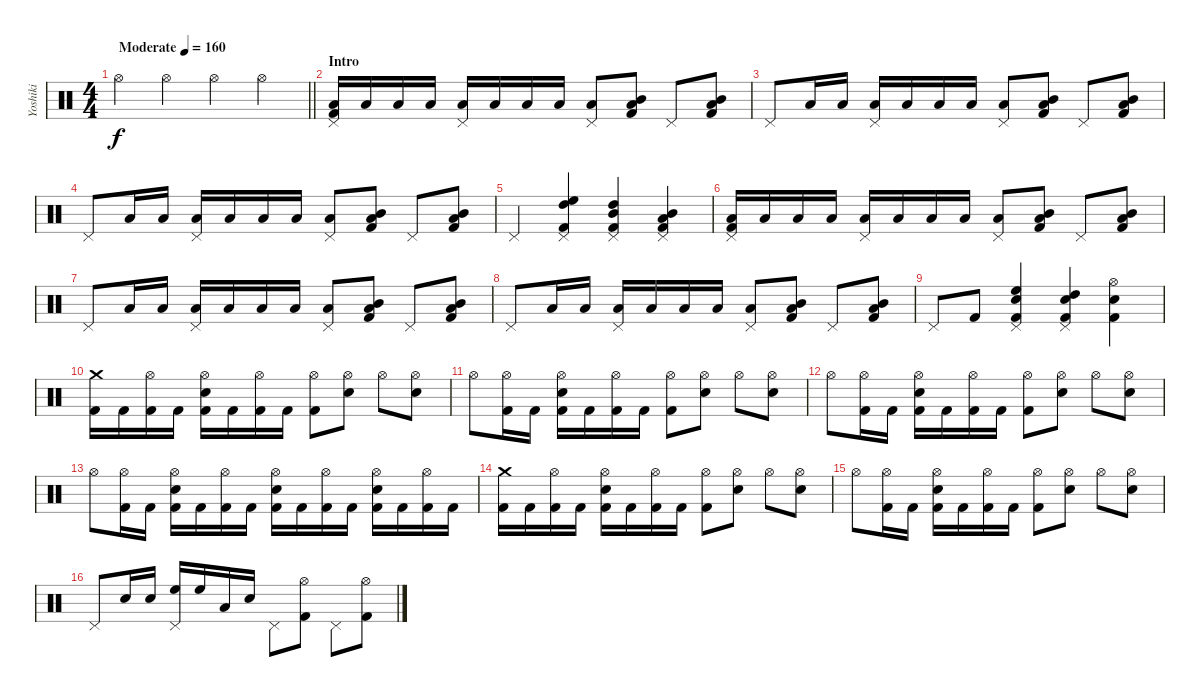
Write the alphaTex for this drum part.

\track ("Yoshiki" "Yoshiki") {instrument percussion}
\staff {score}
\articulation defaults
\ts (4 4)
\tempo (160 "Moderate")
\clef neutral
\barLineRight lightlight
\ks c "Hi-Hat (open)".4{dy f} "Hi-Hat (open)".4 "Hi-Hat (open)".4 "Hi-Hat (open)".4
|
\section ("" "Intro")
("Low Tom (hit)" "Pedal Hi-Hat (hit)" "Kick (hit) 2").16 "Low Tom (hit)".16 "Low Tom (hit)".16 "Low Tom (hit)".16 ("Low Tom (hit)" "Pedal Hi-Hat (hit)").16 "Low Tom (hit)".16 "Low Tom (hit)".16 "Low Tom (hit)".16 ("Low Tom (hit)" "Pedal Hi-Hat (hit)").8 ("Mid Tom (hit)" "Low Tom (hit)" "Kick (hit) 2").8 "Pedal Hi-Hat (hit)".8 ("Mid Tom (hit)" "Low Tom (hit)" "Kick (hit) 2").8 |
"Pedal Hi-Hat (hit)".8 "Low Tom (hit)".16 "Low Tom (hit)".16 ("Low Tom (hit)" "Pedal Hi-Hat (hit)").16 "Low Tom (hit)".16 "Low Tom (hit)".16 "Low Tom (hit)".16 ("Low Tom (hit)" "Pedal Hi-Hat (hit)").8 ("Mid Tom (hit)" "Low Tom (hit)" "Kick (hit) 2").8 "Pedal Hi-Hat (hit)".8 ("Mid Tom (hit)" "Low Tom (hit)" "Kick (hit) 2").8 |
"Pedal Hi-Hat (hit)".8 "Low Tom (hit)".16 "Low Tom (hit)".16 ("Low Tom (hit)" "Pedal Hi-Hat (hit)").16 "Low Tom (hit)".16 "Low Tom (hit)".16 "Low Tom (hit)".16 ("Low Tom (hit)" "Pedal Hi-Hat (hit)").8 ("Mid Tom (hit)" "Low Tom (hit)" "Kick (hit) 2").8 "Pedal Hi-Hat (hit)".8 ("Mid Tom (hit)" "Low Tom (hit)" "Kick (hit) 2").8 |
"Pedal Hi-Hat (hit)".4 ("High Floor Tom (hit)" "High Tom (hit)" "Pedal Hi-Hat (hit)" "Kick (hit) 2").4 ("High Tom (hit)" "Mid Tom (hit)" "Pedal Hi-Hat (hit)" "Kick (hit) 2").4 ("Mid Tom (hit)" "Low Tom (hit)" "Pedal Hi-Hat (hit)" "Kick (hit) 2").4 |
("Low Tom (hit)" "Pedal Hi-Hat (hit)" "Kick (hit) 2").16 "Low Tom (hit)".16 "Low Tom (hit)".16 "Low Tom (hit)".16 ("Low Tom (hit)" "Pedal Hi-Hat (hit)").16 "Low Tom (hit)".16 "Low Tom (hit)".16 "Low Tom (hit)".16 ("Low Tom (hit)" "Pedal Hi-Hat (hit)").8 ("Mid Tom (hit)" "Low Tom (hit)" "Kick (hit) 2").8 "Pedal Hi-Hat (hit)".8 ("Mid Tom (hit)" "Low Tom (hit)" "Kick (hit) 2").8 |
"Pedal Hi-Hat (hit)".8 "Low Tom (hit)".16 "Low Tom (hit)".16 ("Low Tom (hit)" "Pedal Hi-Hat (hit)").16 "Low Tom (hit)".16 "Low Tom (hit)".16 "Low Tom (hit)".16 ("Low Tom (hit)" "Pedal Hi-Hat (hit)").8 ("Mid Tom (hit)" "Low Tom (hit)" "Kick (hit) 2").8 "Pedal Hi-Hat (hit)".8 ("Mid Tom (hit)" "Low Tom (hit)" "Kick (hit) 2").8 |
"Pedal Hi-Hat (hit)".8 "Low Tom (hit)".16 "Low Tom (hit)".16 ("Low Tom (hit)" "Pedal Hi-Hat (hit)").16 "Low Tom (hit)".16 "Low Tom (hit)".16 "Low Tom (hit)".16 ("Low Tom (hit)" "Pedal Hi-Hat (hit)").8 ("Mid Tom (hit)" "Low Tom (hit)" "Kick (hit) 2").8 "Pedal Hi-Hat (hit)".8 ("Mid Tom (hit)" "Low Tom (hit)" "Kick (hit) 2").8 |
"Pedal Hi-Hat (hit)".8 "Kick (hit) 2".8 ("High Floor Tom (hit)" "Snare (hit) 2" "Pedal Hi-Hat (hit)" "Kick (hit) 2").4 ("High Tom (hit)" "Snare (hit) 2" "Pedal Hi-Hat (hit)" "Kick (hit) 2").4 ("Hi-Hat (open)" "Snare (hit) 2" "Kick (hit) 2").4 |
("Crash medium (hit)" "Kick (hit) 2").16 "Kick (hit) 2".16 ("Hi-Hat (open)" "Kick (hit) 2").16 "Kick (hit) 2".16 ("Hi-Hat (open)" "Snare (hit) 2" "Kick (hit) 2").16 "Kick (hit) 2".16 ("Hi-Hat (open)" "Kick (hit) 2").16 "Kick (hit) 2".16 ("Hi-Hat (open)" "Kick (hit) 2").8 ("Hi-Hat (open)" "Snare (hit) 2").8 "Hi-Hat (open)".8 ("Hi-Hat (open)" "Snare (hit) 2").8 |
"Hi-Hat (open)".8 ("Hi-Hat (open)" "Kick (hit) 2").16 "Kick (hit) 2".16 ("Hi-Hat (open)" "Snare (hit) 2" "Kick (hit) 2").16 "Kick (hit) 2".16 ("Hi-Hat (open)" "Kick (hit) 2").16 "Kick (hit) 2".16 ("Hi-Hat (open)" "Kick (hit) 2").8 ("Hi-Hat (open)" "Snare (hit) 2").8 "Hi-Hat (open)".8 ("Hi-Hat (open)" "Snare (hit) 2").8 |
"Hi-Hat (open)".8 ("Hi-Hat (open)" "Kick (hit) 2").16 "Kick (hit) 2".16 ("Hi-Hat (open)" "Snare (hit) 2" "Kick (hit) 2").16 "Kick (hit) 2".16 ("Hi-Hat (open)" "Kick (hit) 2").16 "Kick (hit) 2".16 ("Hi-Hat (open)" "Kick (hit) 2").8 ("Hi-Hat (open)" "Snare (hit) 2").8 "Hi-Hat (open)".8 ("Hi-Hat (open)" "Snare (hit) 2").8 |
"Hi-Hat (open)".8 ("Hi-Hat (open)" "Kick (hit) 2").16 "Kick (hit) 2".16 ("Hi-Hat (open)" "Snare (hit) 2" "Kick (hit) 2").16 "Kick (hit) 2".16 ("Hi-Hat (open)" "Kick (hit) 2").16 "Kick (hit) 2".16 ("Hi-Hat (open)" "Snare (hit) 2" "Kick (hit) 2").16 "Kick (hit) 2".16 ("Hi-Hat (open)" "Kick (hit) 2").16 "Kick (hit) 2".16 ("Hi-Hat (open)" "Snare (hit) 2" "Kick (hit) 2").16 "Kick (hit) 2".16 ("Hi-Hat (open)" "Kick (hit) 2").16 "Kick (hit) 2".16 |
("Crash medium (hit)" "Kick (hit) 2").16 "Kick (hit) 2".16 ("Hi-Hat (open)" "Kick (hit) 2").16 "Kick (hit) 2".16 ("Hi-Hat (open)" "Snare (hit) 2" "Kick (hit) 2").16 "Kick (hit) 2".16 ("Hi-Hat (open)" "Kick (hit) 2").16 "Kick (hit) 2".16 ("Hi-Hat (open)" "Kick (hit) 2").8 ("Hi-Hat (open)" "Snare (hit) 2").8 "Hi-Hat (open)".8 ("Hi-Hat (open)" "Snare (hit) 2").8 |
"Hi-Hat (open)".8 ("Hi-Hat (open)" "Kick (hit) 2").16 "Kick (hit) 2".16 ("Hi-Hat (open)" "Snare (hit) 2" "Kick (hit) 2").16 "Kick (hit) 2".16 ("Hi-Hat (open)" "Kick (hit) 2").16 "Kick (hit) 2".16 ("Hi-Hat (open)" "Kick (hit) 2").8 ("Hi-Hat (open)" "Snare (hit) 2").8 "Hi-Hat (open)".8 ("Hi-Hat (open)" "Snare (hit) 2").8 |
"Pedal Hi-Hat (hit)".8 "Snare (hit) 2".16 "Snare (hit) 2".16 ("High Floor Tom (hit)" "Pedal Hi-Hat (hit)").16 "High Floor Tom (hit)".16 "Low Tom (hit)".16 "Snare (hit) 2".16 "Pedal Hi-Hat (hit)".8 ("Hi-Hat (open)" "Kick (hit) 2").8 "Pedal Hi-Hat (hit)".8 ("Hi-Hat (open)" "Kick (hit) 2").8
